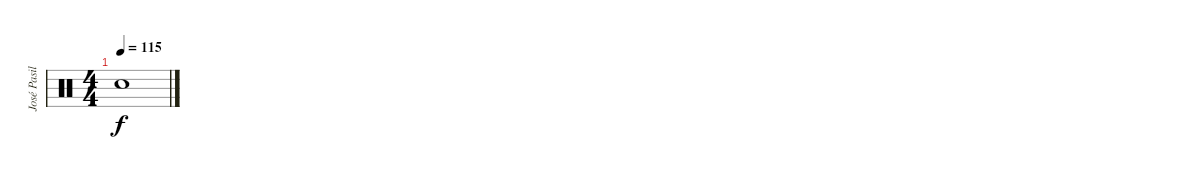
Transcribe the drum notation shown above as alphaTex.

\track ("José Pasillas" "José Pasil") {instrument percussion}
\staff {score}
\articulation defaults
\ts (4 4)
\tempo 115
\clef neutral
\ks c "Snare (hit)"{t}.1{dy f}
